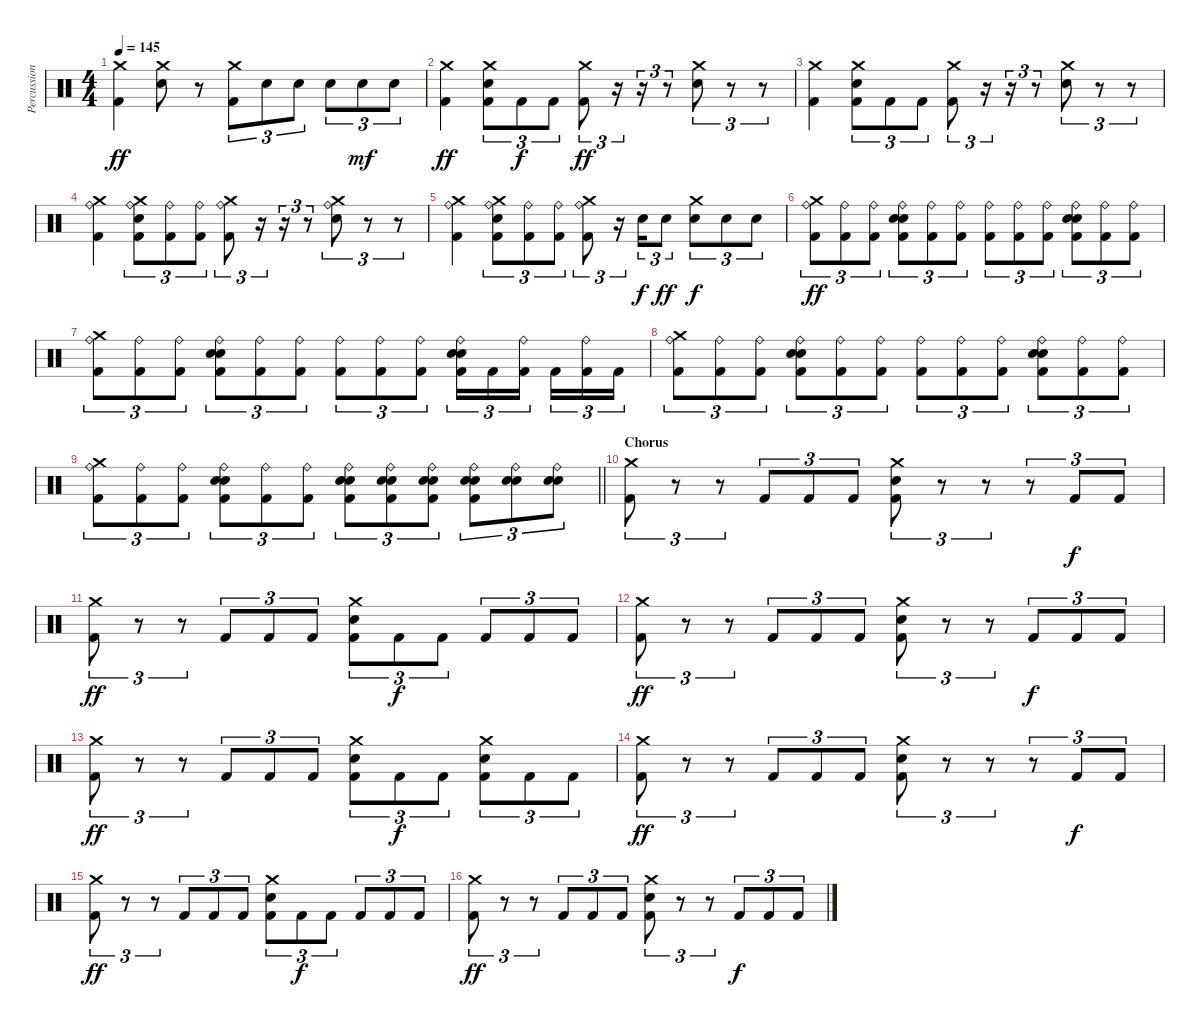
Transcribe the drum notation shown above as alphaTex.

\track ("Percussion" "Percussion") {instrument percussion}
\staff {score}
\articulation defaults
\ts (4 4)
\tempo 145
\clef neutral
\ks c
("Crash medium (hit)" "Kick (hit) 2").4{dy ff} ("Electric Snare (hit)" "Crash medium (hit)").8 r.8 ("Crash medium (hit)" "Kick (hit) 2").8{tu (3 2)} "Electric Snare (hit)".8{tu (3 2)} "Electric Snare (hit)".8{tu (3 2)} "Electric Snare (hit)".8{tu (3 2)} "Electric Snare (hit)".8{tu (3 2) dy mf} "Electric Snare (hit)".8{tu (3 2)} |
("Crash medium (hit)" "Kick (hit) 2").4{dy ff} ("Electric Snare (hit)" "Crash medium (hit)" "Kick (hit) 2").8{tu (3 2)} "Kick (hit) 2".8{tu (3 2) dy f} "Kick (hit) 2".8{tu (3 2)} ("Crash medium (hit)" "Kick (hit) 2").8{tu (3 2) dy ff} r.16{tu (3 2)} r.16{tu (3 2)} r.8{tu (3 2)} ("Electric Snare (hit)" "Crash medium (hit)").8{tu (3 2)} r.8{tu (3 2)} r.8{tu (3 2)} |
("Crash medium (hit)" "Kick (hit) 2").4 ("Electric Snare (hit)" "Crash medium (hit)" "Kick (hit) 2").8{tu (3 2)} "Kick (hit) 2".8{tu (3 2)} "Kick (hit) 2".8{tu (3 2)} ("Crash medium (hit)" "Kick (hit) 2").8{tu (3 2)} r.16{tu (3 2)} r.16{tu (3 2)} r.8{tu (3 2)} ("Electric Snare (hit)" "Crash medium (hit)").8{tu (3 2)} r.8{tu (3 2)} r.8{tu (3 2)} |
("Ride (bell)" "Crash medium (hit)" "Kick (hit) 2").4 ("Ride (bell)" "Electric Snare (hit)" "Crash medium (hit)" "Kick (hit) 2").8{tu (3 2)} ("Ride (bell)" "Kick (hit) 2").8{tu (3 2)} ("Ride (bell)" "Kick (hit) 2").8{tu (3 2)} ("Ride (bell)" "Crash medium (hit)" "Kick (hit) 2").8{tu (3 2)} r.16{tu (3 2)} r.16{tu (3 2)} r.8{tu (3 2)} ("Ride (bell)" "Electric Snare (hit)" "Crash medium (hit)").8{tu (3 2)} r.8{tu (3 2)} r.8{tu (3 2)} |
("Ride (bell)" "Crash medium (hit)" "Kick (hit) 2").4 ("Ride (bell)" "Electric Snare (hit)" "Crash medium (hit)" "Kick (hit) 2").8{tu (3 2)} ("Ride (bell)" "Kick (hit) 2").8{tu (3 2)} ("Ride (bell)" "Kick (hit) 2").8{tu (3 2)} ("Ride (bell)" "Crash medium (hit)" "Kick (hit) 2").8{tu (3 2)} r.16{tu (3 2)} "Electric Snare (hit)".16{tu (3 2) dy f} "Electric Snare (hit)".8{tu (3 2) dy ff} ("Electric Snare (hit)" "Crash medium (hit)").8{tu (3 2) dy f} "Electric Snare (hit)".8{tu (3 2)} "Electric Snare (hit)".8{tu (3 2)} |
("Ride (bell)" "Crash medium (hit)" "Kick (hit) 2").8{tu (3 2) dy ff} ("Ride (bell)" "Kick (hit) 2").8{tu (3 2)} ("Ride (bell)" "Kick (hit) 2").8{tu (3 2)} ("Ride (bell)" "Snare (hit) 2" "Electric Snare (hit)" "Kick (hit) 2").8{tu (3 2)} ("Ride (bell)" "Kick (hit) 2").8{tu (3 2)} ("Ride (bell)" "Kick (hit) 2").8{tu (3 2)} ("Ride (bell)" "Kick (hit) 2").8{tu (3 2)} ("Ride (bell)" "Kick (hit) 2").8{tu (3 2)} ("Ride (bell)" "Kick (hit) 2").8{tu (3 2)} ("Ride (bell)" "Snare (hit) 2" "Electric Snare (hit)" "Kick (hit) 2").8{tu (3 2)} ("Ride (bell)" "Kick (hit) 2").8{tu (3 2)} ("Ride (bell)" "Kick (hit) 2").8{tu (3 2)} |
("Ride (bell)" "Crash medium (hit)" "Kick (hit) 2").8{tu (3 2)} ("Ride (bell)" "Kick (hit) 2").8{tu (3 2)} ("Ride (bell)" "Kick (hit) 2").8{tu (3 2)} ("Ride (bell)" "Snare (hit) 2" "Electric Snare (hit)" "Kick (hit) 2").8{tu (3 2)} ("Ride (bell)" "Kick (hit) 2").8{tu (3 2)} ("Ride (bell)" "Kick (hit) 2").8{tu (3 2)} ("Ride (bell)" "Kick (hit) 2").8{tu (3 2)} ("Ride (bell)" "Kick (hit) 2").8{tu (3 2)} ("Ride (bell)" "Kick (hit) 2").8{tu (3 2)} ("Ride (bell)" "Snare (hit) 2" "Electric Snare (hit)" "Kick (hit) 2").16{tu (3 2)} "Kick (hit) 2".16{tu (3 2)} ("Ride (bell)" "Kick (hit) 2").16{tu (3 2) beam splitsecondary} "Kick (hit) 2".16{tu (3 2)} ("Ride (bell)" "Kick (hit) 2").16{tu (3 2)} "Kick (hit) 2".16{tu (3 2)} |
("Ride (bell)" "Crash medium (hit)" "Kick (hit) 2").8{tu (3 2)} ("Ride (bell)" "Kick (hit) 2").8{tu (3 2)} ("Ride (bell)" "Kick (hit) 2").8{tu (3 2)} ("Ride (bell)" "Snare (hit) 2" "Electric Snare (hit)" "Kick (hit) 2").8{tu (3 2)} ("Ride (bell)" "Kick (hit) 2").8{tu (3 2)} ("Ride (bell)" "Kick (hit) 2").8{tu (3 2)} ("Ride (bell)" "Kick (hit) 2").8{tu (3 2)} ("Ride (bell)" "Kick (hit) 2").8{tu (3 2)} ("Ride (bell)" "Kick (hit) 2").8{tu (3 2)} ("Ride (bell)" "Snare (hit) 2" "Electric Snare (hit)" "Kick (hit) 2").8{tu (3 2)} ("Ride (bell)" "Kick (hit) 2").8{tu (3 2)} ("Ride (bell)" "Kick (hit) 2").8{tu (3 2)} |
\barLineRight lightlight
("Ride (bell)" "Crash medium (hit)" "Kick (hit) 2").8{tu (3 2)} ("Ride (bell)" "Kick (hit) 2").8{tu (3 2)} ("Ride (bell)" "Kick (hit) 2").8{tu (3 2)} ("Ride (bell)" "Snare (hit) 2" "Electric Snare (hit)" "Kick (hit) 2").8{tu (3 2)} ("Ride (bell)" "Kick (hit) 2").8{tu (3 2)} ("Ride (bell)" "Kick (hit) 2").8{tu (3 2)} ("Ride (bell)" "Electric Snare (hit)" "Electric Snare (hit)" "Kick (hit) 2").8{tu (3 2)} ("Ride (bell)" "Electric Snare (hit)" "Electric Snare (hit)" "Kick (hit) 2").8{tu (3 2)} ("Ride (bell)" "Electric Snare (hit)" "Electric Snare (hit)" "Kick (hit) 2").8{tu (3 2)} ("Ride (bell)" "Electric Snare (hit)" "Electric Snare (hit)" "Kick (hit) 2").8{tu (3 2)} ("Ride (bell)" "Electric Snare (hit)" "Electric Snare (hit)").8{tu (3 2)} ("Ride (bell)" "Electric Snare (hit)" "Electric Snare (hit)").8{tu (3 2)} |
\section ("" "Chorus")
("Crash medium (hit)" "Kick (hit) 2").8{tu (3 2)} r.8{tu (3 2)} r.8{tu (3 2)} "Kick (hit) 2".8{tu (3 2)} "Kick (hit) 2".8{tu (3 2)} "Kick (hit) 2".8{tu (3 2)} ("Electric Snare (hit)" "Crash medium (hit)" "Kick (hit) 2").8{tu (3 2)} r.8{tu (3 2)} r.8{tu (3 2)} r.8{tu (3 2)} "Kick (hit) 2".8{tu (3 2) dy f} "Kick (hit) 2".8{tu (3 2)} |
("Crash medium (hit)" "Kick (hit) 2").8{tu (3 2) dy ff} r.8{tu (3 2)} r.8{tu (3 2)} "Kick (hit) 2".8{tu (3 2)} "Kick (hit) 2".8{tu (3 2)} "Kick (hit) 2".8{tu (3 2)} ("Electric Snare (hit)" "Crash medium (hit)" "Kick (hit) 2").8{tu (3 2)} "Kick (hit) 2".8{tu (3 2) dy f} "Kick (hit) 2".8{tu (3 2)} "Kick (hit) 2".8{tu (3 2)} "Kick (hit) 2".8{tu (3 2)} "Kick (hit) 2".8{tu (3 2)} |
("Crash medium (hit)" "Kick (hit) 2").8{tu (3 2) dy ff} r.8{tu (3 2)} r.8{tu (3 2)} "Kick (hit) 2".8{tu (3 2)} "Kick (hit) 2".8{tu (3 2)} "Kick (hit) 2".8{tu (3 2)} ("Electric Snare (hit)" "Crash medium (hit)" "Kick (hit) 2").8{tu (3 2)} r.8{tu (3 2)} r.8{tu (3 2)} "Kick (hit) 2".8{tu (3 2) dy f} "Kick (hit) 2".8{tu (3 2)} "Kick (hit) 2".8{tu (3 2)} |
("Crash medium (hit)" "Kick (hit) 2").8{tu (3 2) dy ff} r.8{tu (3 2)} r.8{tu (3 2)} "Kick (hit) 2".8{tu (3 2)} "Kick (hit) 2".8{tu (3 2)} "Kick (hit) 2".8{tu (3 2)} ("Electric Snare (hit)" "Crash medium (hit)" "Kick (hit) 2").8{tu (3 2)} "Kick (hit) 2".8{tu (3 2) dy f} "Kick (hit) 2".8{tu (3 2)} ("Electric Snare (hit)" "Crash medium (hit)" "Kick (hit) 2").8{tu (3 2)} "Kick (hit) 2".8{tu (3 2)} "Kick (hit) 2".8{tu (3 2)} |
("Crash medium (hit)" "Kick (hit) 2").8{tu (3 2) dy ff} r.8{tu (3 2)} r.8{tu (3 2)} "Kick (hit) 2".8{tu (3 2)} "Kick (hit) 2".8{tu (3 2)} "Kick (hit) 2".8{tu (3 2)} ("Electric Snare (hit)" "Crash medium (hit)" "Kick (hit) 2").8{tu (3 2)} r.8{tu (3 2)} r.8{tu (3 2)} r.8{tu (3 2)} "Kick (hit) 2".8{tu (3 2) dy f} "Kick (hit) 2".8{tu (3 2)} |
("Crash medium (hit)" "Kick (hit) 2").8{tu (3 2) dy ff} r.8{tu (3 2)} r.8{tu (3 2)} "Kick (hit) 2".8{tu (3 2)} "Kick (hit) 2".8{tu (3 2)} "Kick (hit) 2".8{tu (3 2)} ("Electric Snare (hit)" "Crash medium (hit)" "Kick (hit) 2").8{tu (3 2)} "Kick (hit) 2".8{tu (3 2) dy f} "Kick (hit) 2".8{tu (3 2)} "Kick (hit) 2".8{tu (3 2)} "Kick (hit) 2".8{tu (3 2)} "Kick (hit) 2".8{tu (3 2)} |
("Crash medium (hit)" "Kick (hit) 2").8{tu (3 2) dy ff} r.8{tu (3 2)} r.8{tu (3 2)} "Kick (hit) 2".8{tu (3 2)} "Kick (hit) 2".8{tu (3 2)} "Kick (hit) 2".8{tu (3 2)} ("Electric Snare (hit)" "Crash medium (hit)" "Kick (hit) 2").8{tu (3 2)} r.8{tu (3 2)} r.8{tu (3 2)} "Kick (hit) 2".8{tu (3 2) dy f} "Kick (hit) 2".8{tu (3 2)} "Kick (hit) 2".8{tu (3 2)}
